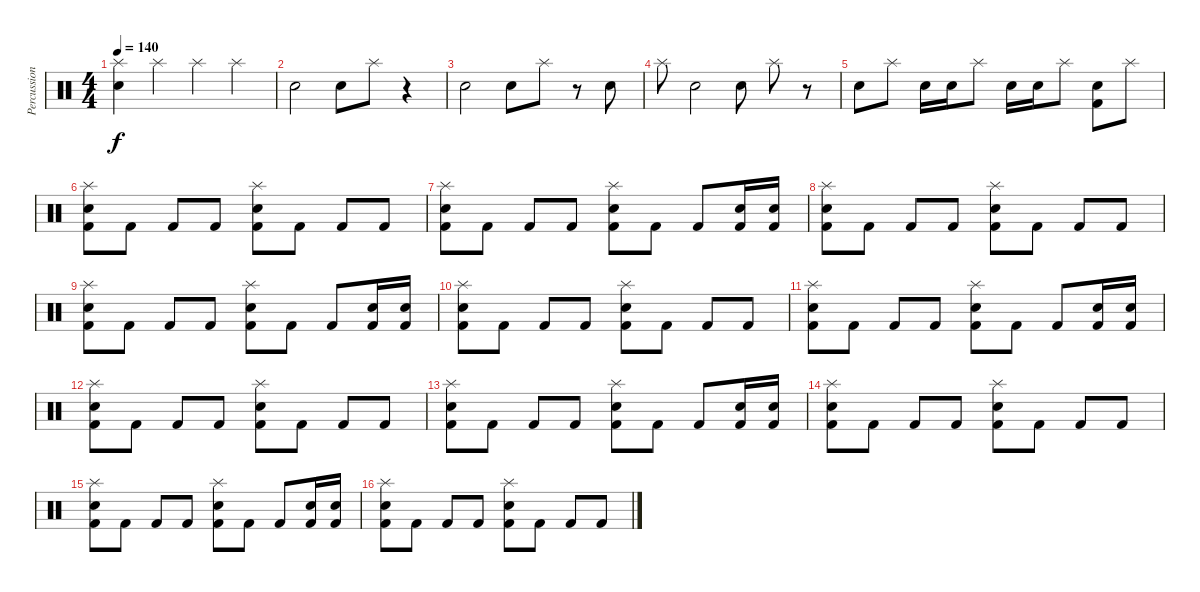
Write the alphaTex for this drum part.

\track ("Percussions" "Percussion") {instrument percussion}
\staff {score}
\articulation defaults
\ts (4 4)
\tempo 140
\clef neutral
\ks c
("Splash (hit)" "Electric Snare (hit)").4{dy f} "Splash (hit)".4 "Splash (hit)".4 "Splash (hit)".4 |
"Electric Snare (hit)".2 "Electric Snare (hit)".8 "Splash (hit)".8 r.4 |
"Electric Snare (hit)".2 "Electric Snare (hit)".8 "Splash (hit)".8 r.8 "Electric Snare (hit)".8 |
"Splash (hit)".8 "Electric Snare (hit)".2 "Electric Snare (hit)".8 "Splash (hit)".8 r.8 |
"Electric Snare (hit)".8 "Splash (hit)".8 "Electric Snare (hit)".16 "Electric Snare (hit)".16 "Splash (hit)".8 "Electric Snare (hit)".16 "Electric Snare (hit)".16 "Splash (hit)".8 ("Electric Snare (hit)" "Kick (hit) 2").8 "Splash (hit)".8 |
("Splash (hit)" "Electric Snare (hit)" "Kick (hit) 2").8 "Kick (hit) 2".8 "Kick (hit) 2".8 "Kick (hit) 2".8 ("Splash (hit)" "Electric Snare (hit)" "Kick (hit) 2").8 "Kick (hit) 2".8 "Kick (hit) 2".8 "Kick (hit) 2".8 |
("Splash (hit)" "Electric Snare (hit)" "Kick (hit) 2").8 "Kick (hit) 2".8 "Kick (hit) 2".8 "Kick (hit) 2".8 ("Splash (hit)" "Electric Snare (hit)" "Kick (hit) 2").8 "Kick (hit) 2".8 "Kick (hit) 2".8 ("Electric Snare (hit)" "Kick (hit) 2").16 ("Electric Snare (hit)" "Kick (hit) 2").16 |
("Splash (hit)" "Electric Snare (hit)" "Kick (hit) 2").8 "Kick (hit) 2".8 "Kick (hit) 2".8 "Kick (hit) 2".8 ("Splash (hit)" "Electric Snare (hit)" "Kick (hit) 2").8 "Kick (hit) 2".8 "Kick (hit) 2".8 "Kick (hit) 2".8 |
("Splash (hit)" "Electric Snare (hit)" "Kick (hit) 2").8 "Kick (hit) 2".8 "Kick (hit) 2".8 "Kick (hit) 2".8 ("Splash (hit)" "Electric Snare (hit)" "Kick (hit) 2").8 "Kick (hit) 2".8 "Kick (hit) 2".8 ("Electric Snare (hit)" "Kick (hit) 2").16 ("Electric Snare (hit)" "Kick (hit) 2").16 |
("Splash (hit)" "Electric Snare (hit)" "Kick (hit) 2").8 "Kick (hit) 2".8 "Kick (hit) 2".8 "Kick (hit) 2".8 ("Splash (hit)" "Electric Snare (hit)" "Kick (hit) 2").8 "Kick (hit) 2".8 "Kick (hit) 2".8 "Kick (hit) 2".8 |
("Splash (hit)" "Electric Snare (hit)" "Kick (hit) 2").8 "Kick (hit) 2".8 "Kick (hit) 2".8 "Kick (hit) 2".8 ("Splash (hit)" "Electric Snare (hit)" "Kick (hit) 2").8 "Kick (hit) 2".8 "Kick (hit) 2".8 ("Electric Snare (hit)" "Kick (hit) 2").16 ("Electric Snare (hit)" "Kick (hit) 2").16 |
("Splash (hit)" "Electric Snare (hit)" "Kick (hit) 2").8 "Kick (hit) 2".8 "Kick (hit) 2".8 "Kick (hit) 2".8 ("Splash (hit)" "Electric Snare (hit)" "Kick (hit) 2").8 "Kick (hit) 2".8 "Kick (hit) 2".8 "Kick (hit) 2".8 |
("Splash (hit)" "Electric Snare (hit)" "Kick (hit) 2").8 "Kick (hit) 2".8 "Kick (hit) 2".8 "Kick (hit) 2".8 ("Splash (hit)" "Electric Snare (hit)" "Kick (hit) 2").8 "Kick (hit) 2".8 "Kick (hit) 2".8 ("Electric Snare (hit)" "Kick (hit) 2").16 ("Electric Snare (hit)" "Kick (hit) 2").16 |
("Splash (hit)" "Electric Snare (hit)" "Kick (hit) 2").8 "Kick (hit) 2".8 "Kick (hit) 2".8 "Kick (hit) 2".8 ("Splash (hit)" "Electric Snare (hit)" "Kick (hit) 2").8 "Kick (hit) 2".8 "Kick (hit) 2".8 "Kick (hit) 2".8 |
("Splash (hit)" "Electric Snare (hit)" "Kick (hit) 2").8 "Kick (hit) 2".8 "Kick (hit) 2".8 "Kick (hit) 2".8 ("Splash (hit)" "Electric Snare (hit)" "Kick (hit) 2").8 "Kick (hit) 2".8 "Kick (hit) 2".8 ("Electric Snare (hit)" "Kick (hit) 2").16 ("Electric Snare (hit)" "Kick (hit) 2").16 |
("Splash (hit)" "Electric Snare (hit)" "Kick (hit) 2").8 "Kick (hit) 2".8 "Kick (hit) 2".8 "Kick (hit) 2".8 ("Splash (hit)" "Electric Snare (hit)" "Kick (hit) 2").8 "Kick (hit) 2".8 "Kick (hit) 2".8 "Kick (hit) 2".8
